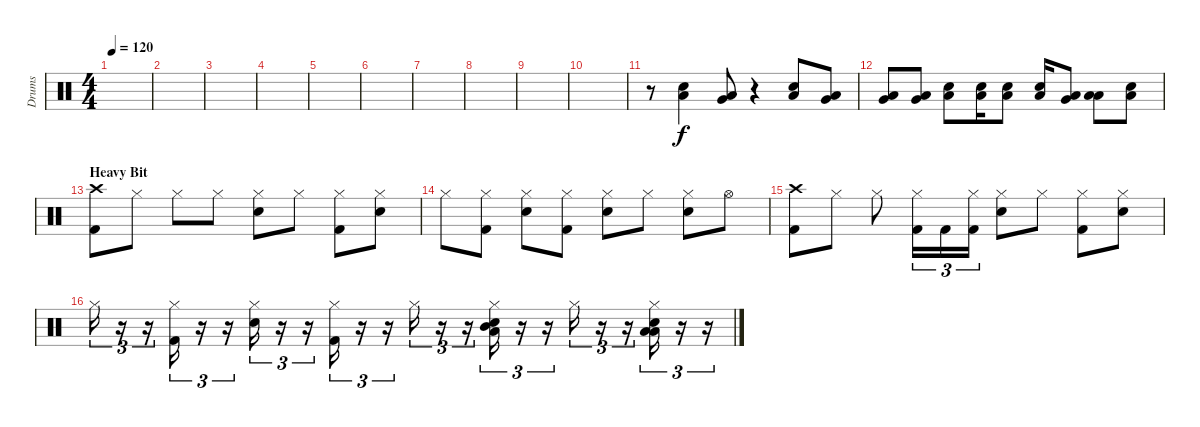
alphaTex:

\track ("Drums" "Drums") {instrument percussion}
\staff {score}
\articulation defaults
\ts (4 4)
\tempo 120
\clef neutral
\ks c
|
|
|
|
|
|
|
|
|
|
r.8 ("Electric Snare (hit)" "Low Tom (hit)").4 ("Very Low Tom (hit)" "Low Tom (hit)").8 r.4 ("Electric Snare (hit)" "Low Tom (hit)").8 ("Very Low Tom (hit)" "Low Tom (hit)").8 |
("Very Low Tom (hit)" "Low Tom (hit)").8 ("Very Low Tom (hit)" "Low Tom (hit)").8 ("Electric Snare (hit)" "Low Tom (hit)").8 ("Electric Snare (hit)" "Low Tom (hit)").16 ("Electric Snare (hit)" "Low Tom (hit)").8 ("Electric Snare (hit)" "Low Tom (hit)").16 ("Very Low Tom (hit)" "Low Tom (hit)").8 ("Low Floor Tom (hit)" "Low Tom (hit)").8 ("Low Tom (hit)" "Electric Snare (hit)").8 |
\section ("" "Heavy Bit")
("Crash high (hit)" "Kick (hit) 2").8 "Hi-Hat (closed)".8 "Hi-Hat (closed)".8 "Hi-Hat (closed)".8 ("Hi-Hat (closed)" "Electric Snare (hit)").8 "Hi-Hat (closed)".8 ("Hi-Hat (closed)" "Kick (hit) 2").8 ("Hi-Hat (closed)" "Snare (hit) 2").8 |
"Hi-Hat (closed)".8 ("Hi-Hat (closed)" "Kick (hit) 2").8 ("Hi-Hat (closed)" "Electric Snare (hit)").8 ("Hi-Hat (closed)" "Kick (hit) 2").8 ("Hi-Hat (closed)" "Snare (hit) 2").8 "Hi-Hat (closed)".8 ("Hi-Hat (closed)" "Electric Snare (hit)").8 "Hi-Hat (open)".8 |
("Crash high (hit)" "Kick (hit) 2").8 "Hi-Hat (closed)".8 "Hi-Hat (closed)".8 ("Hi-Hat (closed)" "Kick (hit) 2").16{tu (3 2)} "Kick (hit) 2".16{tu (3 2)} ("Hi-Hat (closed)" "Kick (hit) 2").16{tu (3 2)} ("Hi-Hat (closed)" "Electric Snare (hit)").8 "Hi-Hat (closed)".8 ("Hi-Hat (closed)" "Kick (hit) 2").8 ("Hi-Hat (closed)" "Snare (hit) 2").8 |
"Hi-Hat (closed)".16{tu (3 2)} r.16{tu (3 2)} r.16{tu (3 2)} ("Hi-Hat (closed)" "Kick (hit) 2").16{tu (3 2)} r.16{tu (3 2)} r.16{tu (3 2)} ("Hi-Hat (closed)" "Electric Snare (hit)").16{tu (3 2)} r.16{tu (3 2)} r.16{tu (3 2)} ("Hi-Hat (closed)" "Kick (hit) 2").16{tu (3 2)} r.16{tu (3 2)} r.16{tu (3 2)} "Hi-Hat (closed)".16{tu (3 2)} r.16{tu (3 2)} r.16{tu (3 2)} ("Hi-Hat (closed)" "Low Tom (hit)" "Electric Snare (hit)" "Mid Tom (hit)").16{tu (3 2)} r.16{tu (3 2)} r.16{tu (3 2)} "Hi-Hat (closed)".16{tu (3 2)} r.16{tu (3 2)} r.16{tu (3 2)} ("Hi-Hat (closed)" "Low Floor Tom (hit)" "Electric Snare (hit)" "Low Tom (hit)").16{tu (3 2)} r.16{tu (3 2)} r.16{tu (3 2)}
